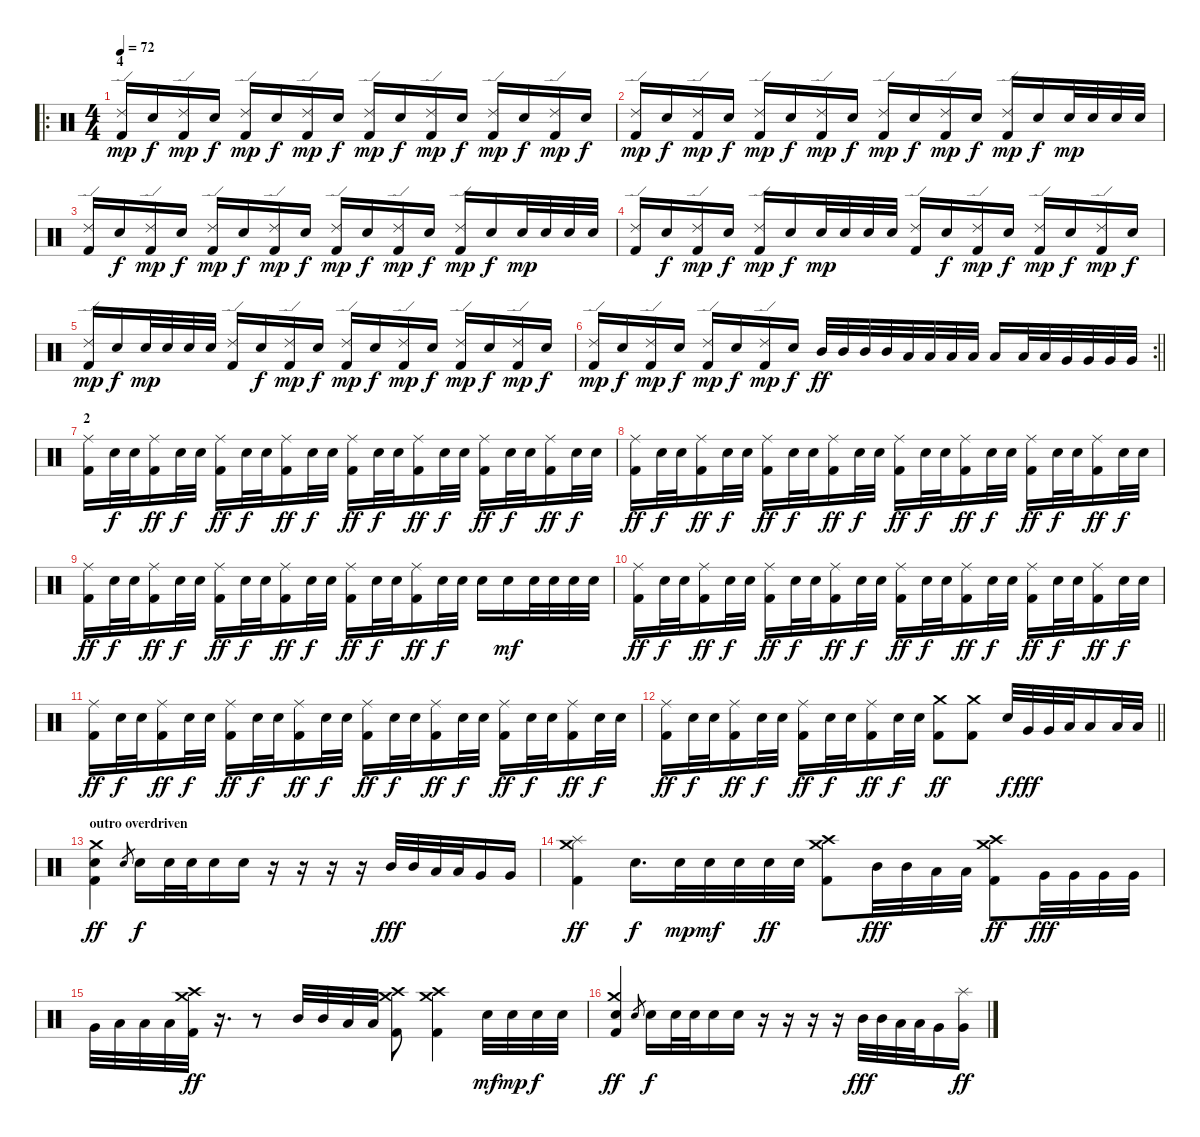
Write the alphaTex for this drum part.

\track "" {instrument percussion}
\staff {score}
\articulation defaults
\ro
\ts (4 4)
\section ("" "4")
\tempo 72
\clef neutral
\ks c
("Ride (edge) 2" "Kick (hit) 2").16{dy mp} "Snare (hit) 2".16{dy f} ("Ride (edge) 2" "Kick (hit) 2").16{dy mp} "Snare (hit) 2".16{dy f} ("Ride (edge) 2" "Kick (hit) 2").16{dy mp} "Snare (hit) 2".16{dy f} ("Ride (edge) 2" "Kick (hit) 2").16{dy mp} "Snare (hit) 2".16{dy f} ("Ride (edge) 2" "Kick (hit) 2").16{dy mp} "Snare (hit) 2".16{dy f} ("Ride (edge) 2" "Kick (hit) 2").16{dy mp} "Snare (hit) 2".16{dy f} ("Ride (edge) 2" "Kick (hit) 2").16{dy mp} "Snare (hit) 2".16{dy f} ("Ride (edge) 2" "Kick (hit) 2").16{dy mp} "Snare (hit) 2".16{dy f} |
("Ride (edge) 2" "Kick (hit) 2").16{dy mp} "Snare (hit) 2".16{dy f} ("Ride (edge) 2" "Kick (hit) 2").16{dy mp} "Snare (hit) 2".16{dy f} ("Ride (edge) 2" "Kick (hit) 2").16{dy mp} "Snare (hit) 2".16{dy f} ("Ride (edge) 2" "Kick (hit) 2").16{dy mp} "Snare (hit) 2".16{dy f} ("Ride (edge) 2" "Kick (hit) 2").16{dy mp} "Snare (hit) 2".16{dy f} ("Ride (edge) 2" "Kick (hit) 2").16{dy mp} "Snare (hit) 2".16{dy f} ("Ride (edge) 2" "Kick (hit) 2").16{dy mp} "Snare (hit) 2".16{dy f} "Snare (hit) 2".32{dy mp} "Snare (hit) 2".32 "Snare (hit) 2".32 "Snare (hit) 2".32 |
("Ride (edge) 2" "Kick (hit) 2").16 "Snare (hit) 2".16{dy f} ("Ride (edge) 2" "Kick (hit) 2").16{dy mp} "Snare (hit) 2".16{dy f} ("Ride (edge) 2" "Kick (hit) 2").16{dy mp} "Snare (hit) 2".16{dy f} ("Ride (edge) 2" "Kick (hit) 2").16{dy mp} "Snare (hit) 2".16{dy f} ("Ride (edge) 2" "Kick (hit) 2").16{dy mp} "Snare (hit) 2".16{dy f} ("Ride (edge) 2" "Kick (hit) 2").16{dy mp} "Snare (hit) 2".16{dy f} ("Ride (edge) 2" "Kick (hit) 2").16{dy mp} "Snare (hit) 2".16{dy f} "Snare (hit) 2".32{dy mp} "Snare (hit) 2".32 "Snare (hit) 2".32 "Snare (hit) 2".32 |
("Ride (edge) 2" "Kick (hit) 2").16 "Snare (hit) 2".16{dy f} ("Ride (edge) 2" "Kick (hit) 2").16{dy mp} "Snare (hit) 2".16{dy f} ("Ride (edge) 2" "Kick (hit) 2").16{dy mp} "Snare (hit) 2".16{dy f} "Snare (hit) 2".32{dy mp} "Snare (hit) 2".32 "Snare (hit) 2".32 "Snare (hit) 2".32 ("Ride (edge) 2" "Kick (hit) 2").16 "Snare (hit) 2".16{dy f} ("Ride (edge) 2" "Kick (hit) 2").16{dy mp} "Snare (hit) 2".16{dy f} ("Ride (edge) 2" "Kick (hit) 2").16{dy mp} "Snare (hit) 2".16{dy f} ("Ride (edge) 2" "Kick (hit) 2").16{dy mp} "Snare (hit) 2".16{dy f} |
("Ride (edge) 2" "Kick (hit) 2").16{dy mp} "Snare (hit) 2".16{dy f} "Snare (hit) 2".32{dy mp} "Snare (hit) 2".32 "Snare (hit) 2".32 "Snare (hit) 2".32 ("Ride (edge) 2" "Kick (hit) 2").16 "Snare (hit) 2".16{dy f} ("Ride (edge) 2" "Kick (hit) 2").16{dy mp} "Snare (hit) 2".16{dy f} ("Ride (edge) 2" "Kick (hit) 2").16{dy mp} "Snare (hit) 2".16{dy f} ("Ride (edge) 2" "Kick (hit) 2").16{dy mp} "Snare (hit) 2".16{dy f} ("Ride (edge) 2" "Kick (hit) 2").16{dy mp} "Snare (hit) 2".16{dy f} ("Ride (edge) 2" "Kick (hit) 2").16{dy mp} "Snare (hit) 2".16{dy f} |
\rc 2
\barLineRight lightlight
("Ride (edge) 2" "Kick (hit) 2").16{dy mp} "Snare (hit) 2".16{dy f} ("Ride (edge) 2" "Kick (hit) 2").16{dy mp} "Snare (hit) 2".16{dy f} ("Ride (edge) 2" "Kick (hit) 2").16{dy mp} "Snare (hit) 2".16{dy f} ("Ride (edge) 2" "Kick (hit) 2").16{dy mp} "Snare (hit) 2".16{dy f} "Mid Tom (hit)".32{dy ff} "Mid Tom (hit)".32 "Mid Tom (hit)".32 "Mid Tom (hit)".32 "Low Tom (hit)".32 "Low Tom (hit)".32 "Low Tom (hit)".32 "Low Tom (hit)".32 "Low Tom (hit)".16 "Low Tom (hit)".32 "Low Tom (hit)".32 "Very Low Tom (hit)".32 "Very Low Tom (hit)".32 "Very Low Tom (hit)".32 "Very Low Tom (hit)".32 |
\section ("" "2")
("Ride (middle)" "Kick (hit) 2").16 "Snare (hit) 2".32{dy f} "Snare (hit) 2".32 ("Ride (middle)" "Kick (hit) 2").16{dy ff} "Snare (hit) 2".32{dy f} "Snare (hit) 2".32 ("Ride (middle)" "Kick (hit) 2").16{dy ff} "Snare (hit) 2".32{dy f} "Snare (hit) 2".32 ("Ride (middle)" "Kick (hit) 2").16{dy ff} "Snare (hit) 2".32{dy f} "Snare (hit) 2".32 ("Ride (middle)" "Kick (hit) 2").16{dy ff} "Snare (hit) 2".32{dy f} "Snare (hit) 2".32 ("Ride (middle)" "Kick (hit) 2").16{dy ff} "Snare (hit) 2".32{dy f} "Snare (hit) 2".32 ("Ride (middle)" "Kick (hit) 2").16{dy ff} "Snare (hit) 2".32{dy f} "Snare (hit) 2".32 ("Ride (middle)" "Kick (hit) 2").16{dy ff} "Snare (hit) 2".32{dy f} "Snare (hit) 2".32 |
("Ride (middle)" "Kick (hit) 2").16{dy ff} "Snare (hit) 2".32{dy f} "Snare (hit) 2".32 ("Ride (middle)" "Kick (hit) 2").16{dy ff} "Snare (hit) 2".32{dy f} "Snare (hit) 2".32 ("Ride (middle)" "Kick (hit) 2").16{dy ff} "Snare (hit) 2".32{dy f} "Snare (hit) 2".32 ("Ride (middle)" "Kick (hit) 2").16{dy ff} "Snare (hit) 2".32{dy f} "Snare (hit) 2".32 ("Ride (middle)" "Kick (hit) 2").16{dy ff} "Snare (hit) 2".32{dy f} "Snare (hit) 2".32 ("Ride (middle)" "Kick (hit) 2").16{dy ff} "Snare (hit) 2".32{dy f} "Snare (hit) 2".32 ("Ride (middle)" "Kick (hit) 2").16{dy ff} "Snare (hit) 2".32{dy f} "Snare (hit) 2".32 ("Ride (middle)" "Kick (hit) 2").16{dy ff} "Snare (hit) 2".32{dy f} "Snare (hit) 2".32 |
("Ride (middle)" "Kick (hit) 2").16{dy ff} "Snare (hit) 2".32{dy f} "Snare (hit) 2".32 ("Ride (middle)" "Kick (hit) 2").16{dy ff} "Snare (hit) 2".32{dy f} "Snare (hit) 2".32 ("Ride (middle)" "Kick (hit) 2").16{dy ff} "Snare (hit) 2".32{dy f} "Snare (hit) 2".32 ("Ride (middle)" "Kick (hit) 2").16{dy ff} "Snare (hit) 2".32{dy f} "Snare (hit) 2".32 ("Ride (middle)" "Kick (hit) 2").16{dy ff} "Snare (hit) 2".32{dy f} "Snare (hit) 2".32 ("Ride (middle)" "Kick (hit) 2").16{dy ff} "Snare (hit) 2".32{dy f} "Snare (hit) 2".32 "Snare (hit) 2".16 "Snare (hit) 2".16{dy mf} "Snare (hit) 2".32 "Snare (hit) 2".32 "Snare (hit) 2".32 "Snare (hit) 2".32 |
("Ride (middle)" "Kick (hit) 2").16{dy ff} "Snare (hit) 2".32{dy f} "Snare (hit) 2".32 ("Ride (middle)" "Kick (hit) 2").16{dy ff} "Snare (hit) 2".32{dy f} "Snare (hit) 2".32 ("Ride (middle)" "Kick (hit) 2").16{dy ff} "Snare (hit) 2".32{dy f} "Snare (hit) 2".32 ("Ride (middle)" "Kick (hit) 2").16{dy ff} "Snare (hit) 2".32{dy f} "Snare (hit) 2".32 ("Ride (middle)" "Kick (hit) 2").16{dy ff} "Snare (hit) 2".32{dy f} "Snare (hit) 2".32 ("Ride (middle)" "Kick (hit) 2").16{dy ff} "Snare (hit) 2".32{dy f} "Snare (hit) 2".32 ("Ride (middle)" "Kick (hit) 2").16{dy ff} "Snare (hit) 2".32{dy f} "Snare (hit) 2".32 ("Ride (middle)" "Kick (hit) 2").16{dy ff} "Snare (hit) 2".32{dy f} "Snare (hit) 2".32 |
("Ride (middle)" "Kick (hit) 2").16{dy ff} "Snare (hit) 2".32{dy f} "Snare (hit) 2".32 ("Ride (middle)" "Kick (hit) 2").16{dy ff} "Snare (hit) 2".32{dy f} "Snare (hit) 2".32 ("Ride (middle)" "Kick (hit) 2").16{dy ff} "Snare (hit) 2".32{dy f} "Snare (hit) 2".32 ("Ride (middle)" "Kick (hit) 2").16{dy ff} "Snare (hit) 2".32{dy f} "Snare (hit) 2".32 ("Ride (middle)" "Kick (hit) 2").16{dy ff} "Snare (hit) 2".32{dy f} "Snare (hit) 2".32 ("Ride (middle)" "Kick (hit) 2").16{dy ff} "Snare (hit) 2".32{dy f} "Snare (hit) 2".32 ("Ride (middle)" "Kick (hit) 2").16{dy ff} "Snare (hit) 2".32{dy f} "Snare (hit) 2".32 ("Ride (middle)" "Kick (hit) 2").16{dy ff} "Snare (hit) 2".32{dy f} "Snare (hit) 2".32 |
\barLineRight lightlight
("Ride (middle)" "Kick (hit) 2").16{dy ff} "Snare (hit) 2".32{dy f} "Snare (hit) 2".32 ("Ride (middle)" "Kick (hit) 2").16{dy ff} "Snare (hit) 2".32{dy f} "Snare (hit) 2".32 ("Ride (middle)" "Kick (hit) 2").16{dy ff} "Snare (hit) 2".32{dy f} "Snare (hit) 2".32 ("Ride (middle)" "Kick (hit) 2").16{dy ff} "Snare (hit) 2".32{dy f} "Snare (hit) 2".32 ("Crash medium (hit)" "Kick (hit) 2").8{dy ff} ("Crash medium (hit)" "Kick (hit) 2").8 "Snare (hit) 2".32{dy f} "Very Low Tom (hit)".32{dy fff} "Very Low Tom (hit)".32 "Low Floor Tom (hit)".32 "Low Tom (hit)".16 "Low Tom (hit)".32 "Low Tom (hit)".32 |
\section ("" "outro overdriven")
("Crash medium (hit)" "Snare (hit) 2" "Kick (hit) 2").4{dy ff} "Snare (hit) 2".8{gr} "Snare (hit) 2".16{dy f} "Snare (hit) 2".32 "Snare (hit) 2".32 "Snare (hit) 2".16 "Snare (hit) 2".16 r.16 r.16 r.16 r.16 "Mid Tom (hit)".32{dy fff} "Mid Tom (hit)".32 "Low Tom (hit)".32 "Low Tom (hit)".32 "Very Low Tom (hit)".16 "Very Low Tom (hit)".16 |
("Splash (hit)" "Crash medium (hit)" "Kick (hit) 2").4{dy ff} "Snare (hit) 2".16{d dy f} "Snare (hit) 2".32{dy mp} "Snare (hit) 2".32{dy mf} "Snare (hit) 2".32 "Snare (hit) 2".32{dy ff} "Snare (hit) 2".32 ("Crash medium (hit)" "Crash high (hit)" "Kick (hit) 2").8 "Mid Tom (hit)".32{dy fff} "Mid Tom (hit)".32 "Low Tom (hit)".32 "Low Tom (hit)".32 ("Crash medium (hit)" "Crash high (hit)" "Kick (hit) 2").8{dy ff} "Very Low Tom (hit)".32{dy fff} "Very Low Tom (hit)".32 "Very Low Tom (hit)".32 "Very Low Tom (hit)".32 |
"Very Low Tom (hit)".32 "Low Tom (hit)".32 "Low Tom (hit)".32 "Low Tom (hit)".32 ("Crash medium (hit)" "Crash high (hit)" "Kick (hit) 2").32{dy ff} r.16{d} r.8 "Mid Tom (hit)".32 "Mid Tom (hit)".32 "Low Tom (hit)".32 "Low Tom (hit)".32 ("Crash medium (hit)" "Crash high (hit)" "Kick (hit) 2").8 ("Crash medium (hit)" "Crash high (hit)" "Kick (hit) 2").4 "Snare (hit) 2".32{dy mf} "Snare (hit) 2".32{dy mp} "Snare (hit) 2".32{dy f} "Snare (hit) 2".32 |
("Crash medium (hit)" "Electric Snare (hit)" "Kick (hit) 2").4{dy ff} "Snare (hit) 2".8{gr} "Snare (hit) 2".16{dy f} "Snare (hit) 2".32 "Snare (hit) 2".32 "Snare (hit) 2".16 "Snare (hit) 2".16 r.16 r.16 r.16 r.16 "Mid Tom (hit)".32{dy fff} "Mid Tom (hit)".32 "Low Tom (hit)".32 "Low Tom (hit)".32 "Very Low Tom (hit)".16 ("Splash (hit)" "Very Low Tom (hit)").16{dy ff}
